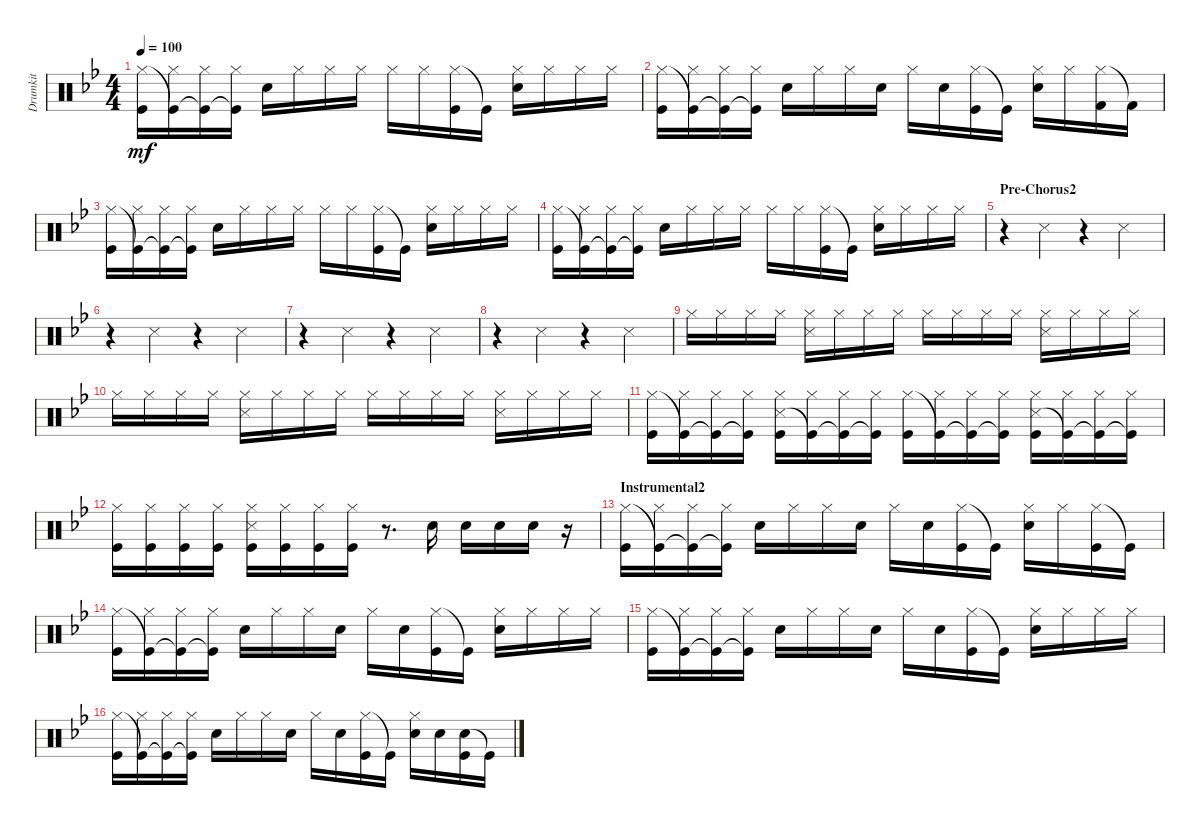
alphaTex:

\track ("Drumkit" "Drumkit") {instrument percussion}
\staff {score}
\articulation defaults
\ts (4 4)
\tempo 100
\clef neutral
\ks gminor
("Hi-Hat (closed)" "Kick (hit)").16{dy mf} ("Kick (hit)"{t} "Hi-Hat (closed)").16 ("Kick (hit)"{t} "Hi-Hat (closed)").16 ("Kick (hit)"{t} "Hi-Hat (closed)").16 "Snare (hit) 2".16 "Hi-Hat (closed)".16 "Hi-Hat (closed)".16 "Hi-Hat (closed)".16 "Hi-Hat (closed)".16 "Hi-Hat (closed)".16 ("Hi-Hat (closed)" "Kick (hit)").16 "Kick (hit)"{t}.16 ("Hi-Hat (closed)" "Snare (hit) 2").16 "Hi-Hat (closed)".16 "Hi-Hat (closed)".16 "Hi-Hat (closed)".16 |
("Hi-Hat (closed)" "Kick (hit)").16 ("Kick (hit)"{t} "Hi-Hat (closed)").16 ("Kick (hit)"{t} "Hi-Hat (closed)").16 ("Kick (hit)"{t} "Hi-Hat (closed)").16 "Snare (hit) 2".16 "Hi-Hat (closed)".16 "Hi-Hat (closed)".16 "Electric Snare (hit)".16 "Hi-Hat (closed)".16 "Electric Snare (hit)".16 ("Hi-Hat (closed)" "Kick (hit)").16 "Kick (hit)"{t}.16 ("Hi-Hat (closed)" "Snare (hit) 2").16 "Hi-Hat (closed)".16 ("Hi-Hat (closed)" "Kick (hit) 2").16 "Kick (hit) 2"{t}.16 |
("Hi-Hat (closed)" "Kick (hit)").16 ("Kick (hit)"{t} "Hi-Hat (closed)").16 ("Kick (hit)"{t} "Hi-Hat (closed)").16 ("Kick (hit)"{t} "Hi-Hat (closed)").16 "Snare (hit) 2".16 "Hi-Hat (closed)".16 "Hi-Hat (closed)".16 "Hi-Hat (closed)".16 "Hi-Hat (closed)".16 "Hi-Hat (closed)".16 ("Hi-Hat (closed)" "Kick (hit)").16 "Kick (hit)"{t}.16 ("Hi-Hat (closed)" "Snare (hit) 2").16 "Hi-Hat (closed)".16 "Hi-Hat (closed)".16 "Hi-Hat (closed)".16 |
("Hi-Hat (closed)" "Kick (hit)").16 ("Kick (hit)"{t} "Hi-Hat (closed)").16 ("Kick (hit)"{t} "Hi-Hat (closed)").16 ("Kick (hit)"{t} "Hi-Hat (closed)").16 "Snare (hit) 2".16 "Hi-Hat (closed)".16 "Hi-Hat (closed)".16 "Hi-Hat (closed)".16 "Hi-Hat (closed)".16 "Hi-Hat (closed)".16 ("Hi-Hat (closed)" "Kick (hit)").16 "Kick (hit)"{t}.16 ("Hi-Hat (closed)" "Snare (hit) 2").16 "Hi-Hat (closed)".16 "Hi-Hat (closed)".16 "Hi-Hat (closed)".16 |
\section ("" "Pre-Chorus2")
r.4 "Snare (side stick) 3".4 r.4 "Snare (side stick) 3".4 |
r.4 "Snare (side stick) 3".4 r.4 "Snare (side stick) 3".4 |
r.4 "Snare (side stick) 3".4 r.4 "Snare (side stick) 3".4 |
r.4 "Snare (side stick) 3".4 r.4 "Snare (side stick) 3".4 |
"Hi-Hat (closed)".16 "Hi-Hat (closed)".16 "Hi-Hat (closed)".16 "Hi-Hat (closed)".16 ("Snare (side stick) 3" "Hi-Hat (closed)").16 "Hi-Hat (closed)".16 "Hi-Hat (closed)".16 "Hi-Hat (closed)".16 "Hi-Hat (closed)".16 "Hi-Hat (closed)".16 "Hi-Hat (closed)".16 "Hi-Hat (closed)".16 ("Snare (side stick) 3" "Hi-Hat (closed)").16 "Hi-Hat (closed)".16 "Hi-Hat (closed)".16 "Hi-Hat (closed)".16 |
"Hi-Hat (closed)".16 "Hi-Hat (closed)".16 "Hi-Hat (closed)".16 "Hi-Hat (closed)".16 ("Snare (side stick) 3" "Hi-Hat (closed)").16 "Hi-Hat (closed)".16 "Hi-Hat (closed)".16 "Hi-Hat (closed)".16 "Hi-Hat (closed)".16 "Hi-Hat (closed)".16 "Hi-Hat (closed)".16 "Hi-Hat (closed)".16 ("Snare (side stick) 3" "Hi-Hat (closed)").16 "Hi-Hat (closed)".16 "Hi-Hat (closed)".16 "Hi-Hat (closed)".16 |
("Hi-Hat (closed)" "Kick (hit)").16 ("Kick (hit)"{t} "Hi-Hat (closed)").16 ("Kick (hit)"{t} "Hi-Hat (closed)").16 ("Kick (hit)"{t} "Hi-Hat (closed)").16 ("Snare (side stick) 3" "Hi-Hat (closed)" "Kick (hit)").16 ("Kick (hit)"{t} "Hi-Hat (closed)").16 ("Kick (hit)"{t} "Hi-Hat (closed)").16 ("Kick (hit)"{t} "Hi-Hat (closed)").16 ("Hi-Hat (closed)" "Kick (hit)").16 ("Kick (hit)"{t} "Hi-Hat (closed)").16 ("Kick (hit)"{t} "Hi-Hat (closed)").16 ("Kick (hit)"{t} "Hi-Hat (closed)").16 ("Snare (side stick) 3" "Hi-Hat (closed)" "Kick (hit)").16 ("Kick (hit)"{t} "Hi-Hat (closed)").16 ("Kick (hit)"{t} "Hi-Hat (closed)").16 ("Kick (hit)"{t} "Hi-Hat (closed)").16 |
("Kick (hit)" "Hi-Hat (closed)").16 ("Kick (hit)" "Hi-Hat (closed)").16 ("Kick (hit)" "Hi-Hat (closed)").16 ("Kick (hit)" "Hi-Hat (closed)").16 ("Kick (hit)" "Snare (side stick) 3" "Hi-Hat (closed)").16 ("Kick (hit)" "Hi-Hat (closed)").16 ("Kick (hit)" "Hi-Hat (closed)").16 ("Kick (hit)" "Hi-Hat (closed)").16 r.8{d} "Snare (hit) 2".16 "Electric Snare (hit)".16 "Electric Snare (hit)".16 "Snare (hit) 2".16 r.16 |
\section ("" "Instrumental2")
("Hi-Hat (closed)" "Kick (hit)").16 ("Kick (hit)"{t} "Hi-Hat (closed)").16 ("Kick (hit)"{t} "Hi-Hat (closed)").16 ("Kick (hit)"{t} "Hi-Hat (closed)").16 "Snare (hit) 2".16 "Hi-Hat (closed)".16 "Hi-Hat (closed)".16 "Electric Snare (hit)".16 "Hi-Hat (closed)".16 "Electric Snare (hit)".16 ("Hi-Hat (closed)" "Kick (hit)").16 "Kick (hit)"{t}.16 ("Hi-Hat (closed)" "Snare (hit) 2").16 "Hi-Hat (closed)".16 ("Hi-Hat (closed)" "Kick (hit)").16 "Kick (hit)"{t}.16 |
("Hi-Hat (closed)" "Kick (hit)").16 ("Kick (hit)"{t} "Hi-Hat (closed)").16 ("Kick (hit)"{t} "Hi-Hat (closed)").16 ("Kick (hit)"{t} "Hi-Hat (closed)").16 "Snare (hit) 2".16 "Hi-Hat (closed)".16 "Hi-Hat (closed)".16 "Electric Snare (hit)".16 "Hi-Hat (closed)".16 "Electric Snare (hit)".16 ("Hi-Hat (closed)" "Kick (hit)").16 "Kick (hit)"{t}.16 ("Hi-Hat (closed)" "Snare (hit) 2").16 "Hi-Hat (closed)".16 "Hi-Hat (closed)".16 "Hi-Hat (closed)".16 |
("Hi-Hat (closed)" "Kick (hit)").16 ("Kick (hit)"{t} "Hi-Hat (closed)").16 ("Kick (hit)"{t} "Hi-Hat (closed)").16 ("Kick (hit)"{t} "Hi-Hat (closed)").16 "Snare (hit) 2".16 "Hi-Hat (closed)".16 "Hi-Hat (closed)".16 "Electric Snare (hit)".16 "Hi-Hat (closed)".16 "Electric Snare (hit)".16 ("Hi-Hat (closed)" "Kick (hit)").16 "Kick (hit)"{t}.16 ("Hi-Hat (closed)" "Snare (hit) 2").16 "Hi-Hat (closed)".16 "Hi-Hat (closed)".16 "Hi-Hat (closed)".16 |
("Hi-Hat (closed)" "Kick (hit)").16 ("Kick (hit)"{t} "Hi-Hat (closed)").16 ("Kick (hit)"{t} "Hi-Hat (closed)").16 ("Kick (hit)"{t} "Hi-Hat (closed)").16 "Snare (hit) 2".16 "Hi-Hat (closed)".16 "Hi-Hat (closed)".16 "Electric Snare (hit)".16 "Hi-Hat (closed)".16 "Electric Snare (hit)".16 ("Hi-Hat (closed)" "Kick (hit)").16 "Kick (hit)"{t}.16 ("Hi-Hat (closed)" "Snare (hit) 2").16 "Snare (hit) 2".16 ("Snare (hit) 2" "Kick (hit)").16 "Kick (hit)"{t}.16
